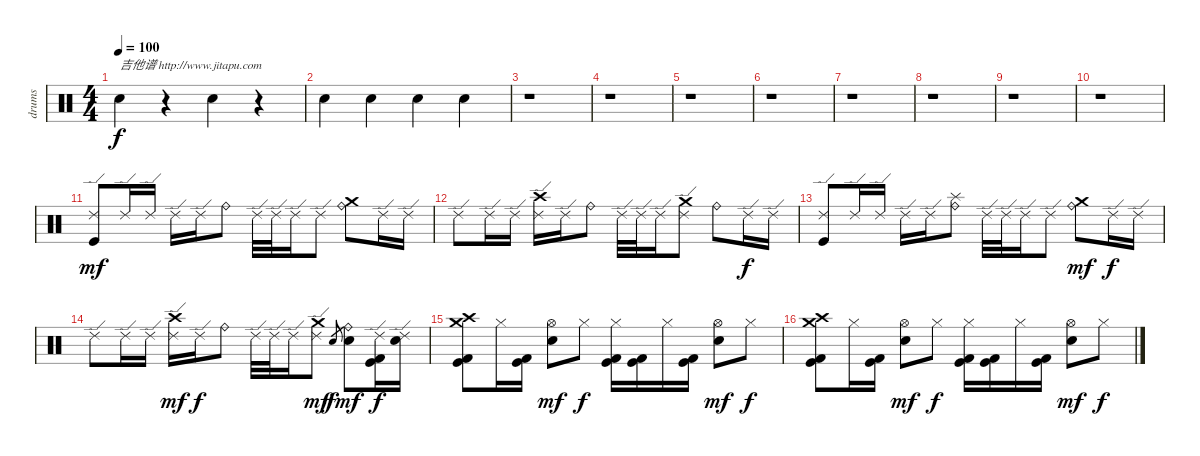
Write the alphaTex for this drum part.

\track ("drums" "drums") {instrument percussion}
\staff {score}
\articulation defaults
\ts (4 4)
\tempo 100
\clef neutral
\ks c "Electric Snare (hit)".4{txt "吉他谱 http://www.jitapu.com" dy f}
r.4 "Electric Snare (hit)".4 r.4 |
"Electric Snare (hit)".4 "Electric Snare (hit)".4 "Electric Snare (hit)".4 "Electric Snare (hit)".4 |
r.1 |
r.1 |
r.1 |
r.1 |
r.1 |
r.1 |
r.1 |
r.1 |
("Ride (edge) 2" "Kick (hit)").8{dy mf} "Ride (edge) 2".16 "Ride (edge) 2".16 "Ride (edge) 2".16 "Ride (edge) 2".16 "Ride (bell)".8 "Ride (edge) 2".32 "Ride (edge) 2".32 "Ride (edge) 2".16 "Ride (edge) 2".8 ("Ride (bell)" "Crash medium (hit)").8 "Ride (edge) 2".16 "Ride (edge) 2".16 |
"Ride (edge) 2".8 "Ride (edge) 2".16 "Ride (edge) 2".16 ("Ride (edge) 2" "Crash high (hit)").16 "Ride (edge) 2".16 "Ride (bell)".8 "Ride (edge) 2".32 "Ride (edge) 2".32 "Ride (edge) 2".16 ("Ride (edge) 2" "Crash medium (hit)").8 "Ride (bell)".8 "Ride (edge) 2".16{dy f} "Ride (edge) 2".16 |
("Ride (edge) 2" "Kick (hit)").8 "Ride (edge) 2".16 "Ride (edge) 2".16 "Ride (edge) 2".16 "Ride (edge) 2".16 ("Ride (bell)" "Splash (hit)").8 "Ride (edge) 2".32 "Ride (edge) 2".32 "Ride (edge) 2".16 "Ride (edge) 2".8 ("Ride (bell)" "Crash medium (hit)").8{dy mf} "Ride (edge) 2".16{dy f} "Ride (edge) 2".16 |
"Ride (edge) 2".8 "Ride (edge) 2".16 "Ride (edge) 2".16 ("Ride (edge) 2" "Crash high (hit)").16{dy mf} "Ride (edge) 2".16{dy f} "Ride (bell)".8 "Ride (edge) 2".32 "Ride (edge) 2".32 "Ride (edge) 2".16 ("Ride (edge) 2" "Crash medium (hit)").8{dy mf} "Electric Snare (hit)".8{gr dy f} ("Ride (bell)" "Electric Snare (hit)").8{dy mf} ("Ride (edge) 2" "Kick (hit) 2" "Kick (hit)").16{dy f} ("Ride (edge) 2" "Electric Snare (hit)").16 |
("Crash high (hit)" "Crash medium (hit)" "Kick (hit) 2" "Kick (hit)").8 "Hi-Hat (closed)".16 ("Kick (hit) 2" "Kick (hit)").16 ("Hi-Hat (open)" "Electric Snare (hit)").8{dy mf} "Hi-Hat (closed)".8{dy f} ("Hi-Hat (closed)" "Kick (hit) 2" "Kick (hit)").16 ("Kick (hit) 2" "Kick (hit)").16 "Hi-Hat (closed)".16 ("Kick (hit) 2" "Kick (hit)").16 ("Hi-Hat (open)" "Electric Snare (hit)").8{dy mf} "Hi-Hat (closed)".8{dy f} |
("Crash high (hit)" "Crash medium (hit)" "Kick (hit) 2" "Kick (hit)").8 "Hi-Hat (closed)".16 ("Kick (hit) 2" "Kick (hit)").16 ("Hi-Hat (open)" "Electric Snare (hit)").8{dy mf} "Hi-Hat (closed)".8{dy f} ("Hi-Hat (closed)" "Kick (hit) 2" "Kick (hit)").16 ("Kick (hit) 2" "Kick (hit)").16 "Hi-Hat (closed)".16 ("Kick (hit) 2" "Kick (hit)").16 ("Hi-Hat (open)" "Electric Snare (hit)").8{dy mf} "Hi-Hat (closed)".8{dy f}
